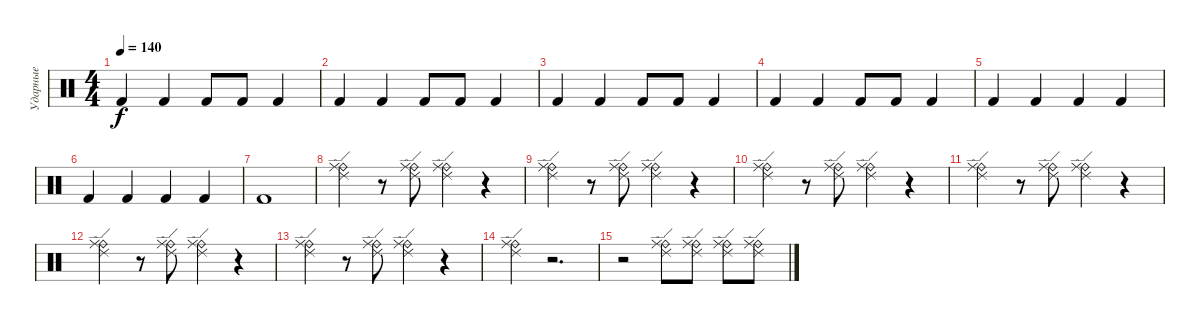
\track ("Ударные" "Ударные") {instrument percussion}
\staff {score}
\articulation defaults
\ts (4 4)
\tempo 140
\clef neutral
\ks c "Kick (hit) 2".4{dy f} "Kick (hit) 2".4 "Kick (hit) 2".8 "Kick (hit) 2".8 "Kick (hit) 2".4
|
"Kick (hit) 2".4 "Kick (hit) 2".4 "Kick (hit) 2".8 "Kick (hit) 2".8 "Kick (hit) 2".4 |
"Kick (hit) 2".4 "Kick (hit) 2".4 "Kick (hit) 2".8 "Kick (hit) 2".8 "Kick (hit) 2".4 |
"Kick (hit) 2".4 "Kick (hit) 2".4 "Kick (hit) 2".8 "Kick (hit) 2".8 "Kick (hit) 2".4 |
"Kick (hit) 2".4 "Kick (hit) 2".4 "Kick (hit) 2".4 "Kick (hit) 2".4 |
"Kick (hit) 2".4 "Kick (hit) 2".4 "Kick (hit) 2".4 "Kick (hit) 2".4 |
"Kick (hit) 2".1 |
("Ride (bell)" "Ride (edge) 2" "Ride (middle)").4 r.8 ("Ride (bell)" "Ride (edge) 2" "Ride (middle)").8 ("Ride (bell)" "Ride (edge) 2" "Ride (middle)").4 r.4 |
("Ride (bell)" "Ride (edge) 2" "Ride (middle)").4 r.8 ("Ride (bell)" "Ride (edge) 2" "Ride (middle)").8 ("Ride (bell)" "Ride (edge) 2" "Ride (middle)").4 r.4 |
("Ride (bell)" "Ride (edge) 2" "Ride (middle)").4 r.8 ("Ride (bell)" "Ride (edge) 2" "Ride (middle)").8 ("Ride (bell)" "Ride (edge) 2" "Ride (middle)").4 r.4 |
("Ride (bell)" "Ride (edge) 2" "Ride (middle)").4 r.8 ("Ride (bell)" "Ride (edge) 2" "Ride (middle)").8 ("Ride (bell)" "Ride (edge) 2" "Ride (middle)").4 r.4 |
("Ride (bell)" "Ride (edge) 2" "Ride (middle)").4 r.8 ("Ride (bell)" "Ride (edge) 2" "Ride (middle)").8 ("Ride (bell)" "Ride (edge) 2" "Ride (middle)").4 r.4 |
("Ride (bell)" "Ride (edge) 2" "Ride (middle)").4 r.8 ("Ride (bell)" "Ride (edge) 2" "Ride (middle)").8 ("Ride (bell)" "Ride (edge) 2" "Ride (middle)").4 r.4 |
("Ride (bell)" "Ride (edge) 2" "Ride (middle)").4 r.2{d} |
r.2 ("Ride (bell)" "Ride (edge) 2" "Ride (middle)").8 ("Ride (bell)" "Ride (edge) 2" "Ride (middle)").8 ("Ride (bell)" "Ride (edge) 2" "Ride (middle)").8 ("Ride (bell)" "Ride (edge) 2" "Ride (middle)").8
